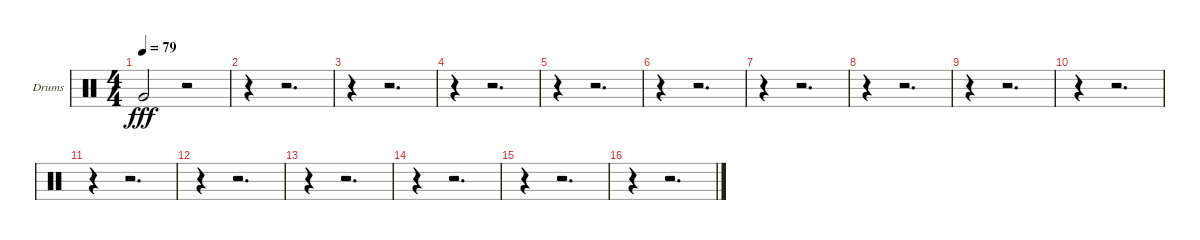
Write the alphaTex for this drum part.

\bracketExtendMode groupsimilarinstruments
\firstSystemTrackNameOrientation horizontal
\otherSystemsTrackNameOrientation horizontal
\track ("Drumkit" "Drums") {instrument percussion}
\staff {score}
\articulation defaults
\ts (4 4)
\tempo 79
\clef neutral
\ks c "Very Low Tom (hit)".2{dy fff}
r.2 |
r.4 r.2{d} |
r.4 r.2{d} |
r.4 r.2{d} |
r.4 r.2{d} |
r.4 r.2{d} |
r.4 r.2{d} |
r.4 r.2{d} |
r.4 r.2{d} |
r.4 r.2{d} |
r.4 r.2{d} |
r.4 r.2{d} |
r.4 r.2{d} |
r.4 r.2{d} |
r.4 r.2{d} |
r.4 r.2{d}
